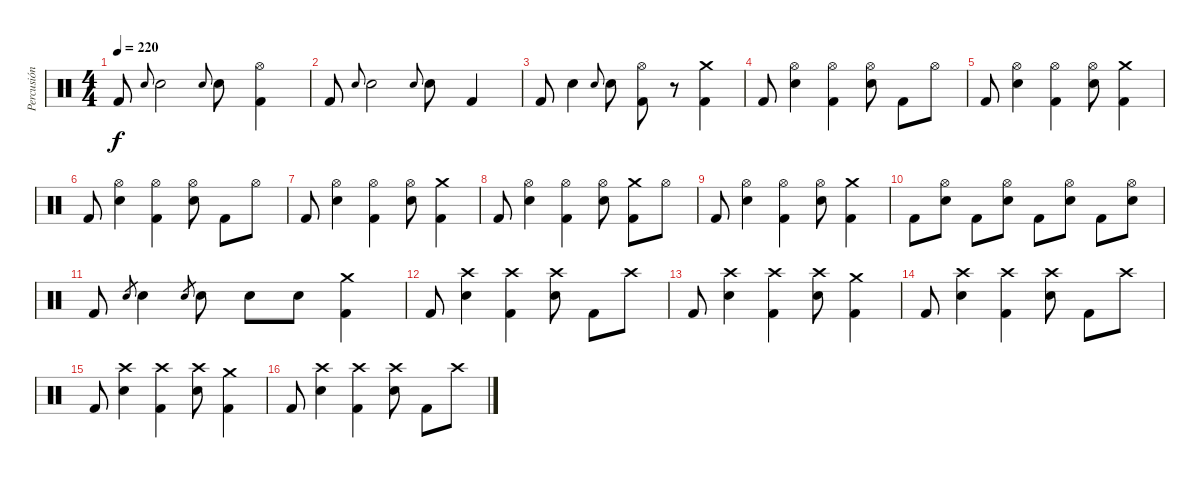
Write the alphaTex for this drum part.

\track ("Percusión" "Percusión") {instrument percussion}
\staff {score}
\articulation defaults
\ts (4 4)
\tempo 220
\clef neutral
\ks c "Kick (hit) 2".8{dy f} "Snare (hit) 2".8{gr onbeat} "Snare (hit) 2".2 "Snare (hit) 2".8{gr onbeat} "Snare (hit) 2".8
("Hi-Hat (open)" "Kick (hit) 2").4 |
"Kick (hit) 2".8 "Snare (hit) 2".8{gr onbeat} "Snare (hit) 2".2 "Snare (hit) 2".8{gr onbeat} "Snare (hit) 2".8 "Kick (hit) 2".4 |
"Kick (hit) 2".8 "Snare (hit) 2".4 "Snare (hit) 2".8{gr onbeat} "Snare (hit) 2".8 ("Hi-Hat (open)" "Kick (hit) 2").8 r.8 ("Crash medium (hit)" "Kick (hit) 2").4 |
"Kick (hit) 2".8 ("Hi-Hat (open)" "Snare (hit) 2").4 ("Hi-Hat (open)" "Kick (hit) 2").4 ("Hi-Hat (open)" "Snare (hit) 2").8 "Kick (hit) 2".8 "Hi-Hat (open)".8 |
"Kick (hit) 2".8 ("Hi-Hat (open)" "Snare (hit) 2").4 ("Hi-Hat (open)" "Kick (hit) 2").4 ("Hi-Hat (open)" "Snare (hit) 2").8 ("Crash medium (hit)" "Kick (hit) 2").4 |
"Kick (hit) 2".8 ("Hi-Hat (open)" "Snare (hit) 2").4 ("Hi-Hat (open)" "Kick (hit) 2").4 ("Hi-Hat (open)" "Snare (hit) 2").8 "Kick (hit) 2".8 "Hi-Hat (open)".8 |
"Kick (hit) 2".8 ("Hi-Hat (open)" "Snare (hit) 2").4 ("Hi-Hat (open)" "Kick (hit) 2").4 ("Hi-Hat (open)" "Snare (hit) 2").8 ("Crash medium (hit)" "Kick (hit) 2").4 |
"Kick (hit) 2".8 ("Hi-Hat (open)" "Snare (hit) 2").4 ("Hi-Hat (open)" "Kick (hit) 2").4 ("Hi-Hat (open)" "Snare (hit) 2").8 ("Crash medium (hit)" "Kick (hit) 2").8 "Hi-Hat (open)".8 |
"Kick (hit) 2".8 ("Hi-Hat (open)" "Snare (hit) 2").4 ("Hi-Hat (open)" "Kick (hit) 2").4 ("Hi-Hat (open)" "Snare (hit) 2").8 ("Crash medium (hit)" "Kick (hit) 2").4 |
"Kick (hit) 2".8 ("Hi-Hat (open)" "Snare (hit) 2").8 "Kick (hit) 2".8 ("Hi-Hat (open)" "Snare (hit) 2").8 "Kick (hit) 2".8 ("Hi-Hat (open)" "Snare (hit) 2").8 "Kick (hit) 2".8 ("Hi-Hat (open)" "Snare (hit) 2").8 |
"Kick (hit) 2".8 "Snare (hit) 2".8{gr} "Snare (hit) 2".4 "Snare (hit) 2".8{gr} "Snare (hit) 2".8 "Snare (hit) 2".8 "Snare (hit) 2".8 ("Crash medium (hit)" "Kick (hit) 2").4 |
"Kick (hit) 2".8 ("Crash high (hit)" "Snare (hit) 2").4 ("Crash high (hit)" "Kick (hit) 2").4 ("Crash high (hit)" "Snare (hit) 2").8 "Kick (hit) 2".8 "Crash high (hit)".8 |
"Kick (hit) 2".8 ("Crash high (hit)" "Snare (hit) 2").4 ("Crash high (hit)" "Kick (hit) 2").4 ("Crash high (hit)" "Snare (hit) 2").8 ("Crash medium (hit)" "Kick (hit) 2").4 |
"Kick (hit) 2".8 ("Crash high (hit)" "Snare (hit) 2").4 ("Crash high (hit)" "Kick (hit) 2").4 ("Crash high (hit)" "Snare (hit) 2").8 "Kick (hit) 2".8 "Crash high (hit)".8 |
"Kick (hit) 2".8 ("Crash high (hit)" "Snare (hit) 2").4 ("Crash high (hit)" "Kick (hit) 2").4 ("Crash high (hit)" "Snare (hit) 2").8 ("Crash medium (hit)" "Kick (hit) 2").4 |
"Kick (hit) 2".8 ("Crash high (hit)" "Snare (hit) 2").4 ("Crash high (hit)" "Kick (hit) 2").4 ("Crash high (hit)" "Snare (hit) 2").8 "Kick (hit) 2".8 "Crash high (hit)".8
